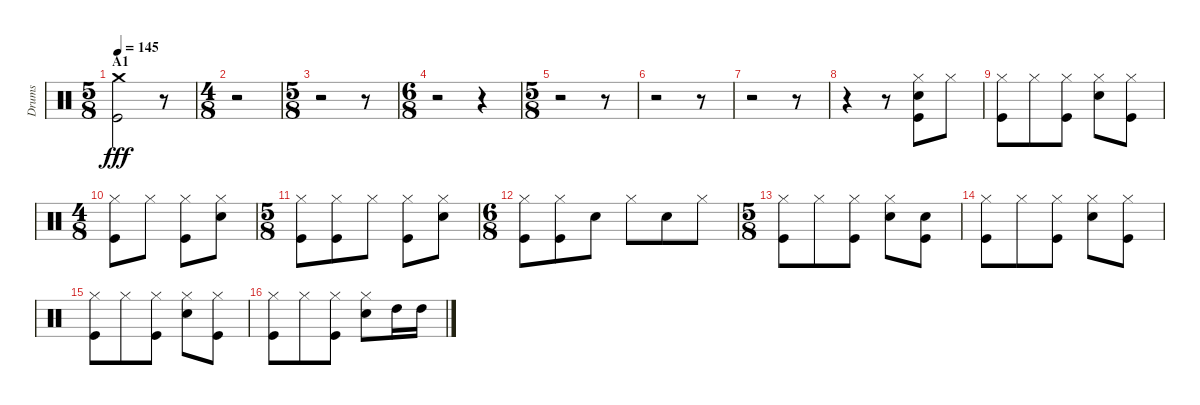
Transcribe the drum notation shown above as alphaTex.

\track ("Drums" "Drums") {instrument percussion}
\staff {score}
\articulation defaults
\ts (5 8)
\section ("" "A1")
\tempo 145
\clef neutral
\ks c
("Crash medium (hit)" "Kick (hit)").2{dy fff} r.8 |
\ts (4 8)
r.2 |
\ts (5 8)
r.2 r.8 |
\ts (6 8)
r.2 r.4 |
\ts (5 8)
r.2 r.8 |
r.2 r.8 |
r.2 r.8 |
r.4 r.8 ("Hi-Hat (closed)" "Snare (hit) 2" "Kick (hit)").8 "Hi-Hat (closed)".8 |
("Hi-Hat (closed)" "Kick (hit)").8 "Hi-Hat (closed)".8 ("Hi-Hat (closed)" "Kick (hit)").8 ("Hi-Hat (closed)" "Snare (hit) 2").8 ("Hi-Hat (closed)" "Kick (hit)").8 |
\ts (4 8)
("Hi-Hat (closed)" "Kick (hit)").8 "Hi-Hat (closed)".8 ("Hi-Hat (closed)" "Kick (hit)").8 ("Hi-Hat (closed)" "Snare (hit) 2").8 |
\ts (5 8)
("Hi-Hat (closed)" "Kick (hit)").8 ("Hi-Hat (closed)" "Kick (hit)").8 "Hi-Hat (closed)".8 ("Hi-Hat (closed)" "Kick (hit)").8 ("Hi-Hat (closed)" "Snare (hit) 2").8 |
\ts (6 8)
("Hi-Hat (closed)" "Kick (hit)").8 ("Hi-Hat (closed)" "Kick (hit)").8 "Snare (hit) 2".8 "Hi-Hat (closed)".8 "Snare (hit) 2".8 "Hi-Hat (closed)".8 |
\ts (5 8)
("Hi-Hat (closed)" "Kick (hit)").8 "Hi-Hat (closed)".8 ("Hi-Hat (closed)" "Kick (hit)").8 ("Hi-Hat (closed)" "Snare (hit) 2").8 ("Snare (hit)" "Kick (hit)").8 |
("Hi-Hat (closed)" "Kick (hit)").8 "Hi-Hat (closed)".8 ("Hi-Hat (closed)" "Kick (hit)").8 ("Hi-Hat (closed)" "Snare (hit) 2").8 ("Hi-Hat (closed)" "Kick (hit)").8 |
("Hi-Hat (closed)" "Kick (hit)").8 "Hi-Hat (closed)".8 ("Hi-Hat (closed)" "Kick (hit)").8 ("Hi-Hat (closed)" "Snare (hit) 2").8 ("Hi-Hat (closed)" "Kick (hit)").8 |
("Hi-Hat (closed)" "Kick (hit)").8 "Hi-Hat (closed)".8 ("Hi-Hat (closed)" "Kick (hit)").8 ("Hi-Hat (closed)" "Snare (hit) 2").8 "High Tom (hit)".16 "High Tom (hit)".16
